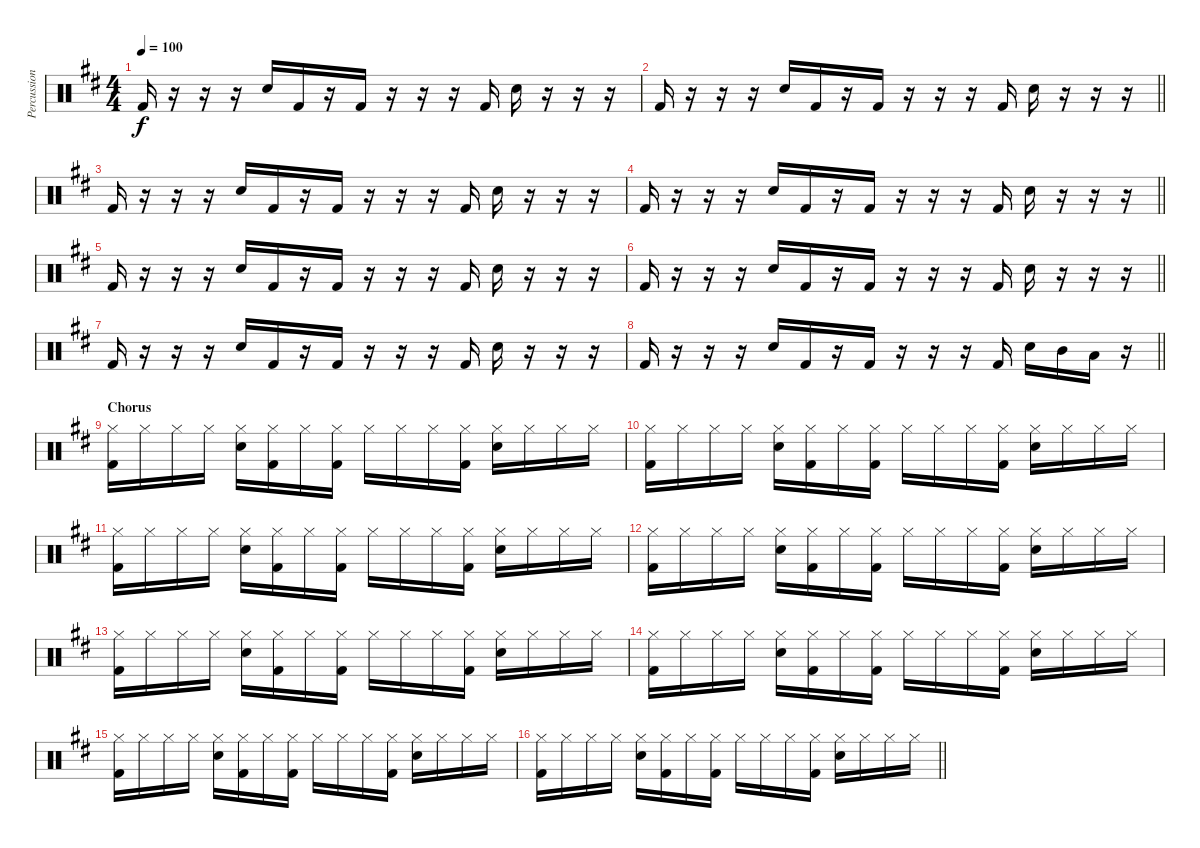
\track ("Percussion" "Percussion") {instrument percussion}
\staff {score}
\articulation defaults
\ts (4 4)
\tempo 100
\clef neutral
\ks d "Kick (hit) 2".16{dy f}
r.16 r.16 r.16 "Snare (hit) 2".16 "Kick (hit) 2".16 r.16 "Kick (hit) 2".16 r.16 r.16 r.16 "Kick (hit) 2".16 "Snare (hit) 2".16 r.16 r.16 r.16 |
\barLineRight lightlight "Kick (hit) 2".16
r.16 r.16 r.16 "Snare (hit) 2".16 "Kick (hit) 2".16 r.16 "Kick (hit) 2".16 r.16 r.16 r.16 "Kick (hit) 2".16 "Snare (hit) 2".16 r.16 r.16 r.16 |
"Kick (hit) 2".16 r.16 r.16 r.16 "Snare (hit) 2".16 "Kick (hit) 2".16 r.16 "Kick (hit) 2".16 r.16 r.16 r.16 "Kick (hit) 2".16 "Snare (hit) 2".16 r.16 r.16 r.16 |
\barLineRight lightlight "Kick (hit) 2".16
r.16 r.16 r.16 "Snare (hit) 2".16 "Kick (hit) 2".16 r.16 "Kick (hit) 2".16 r.16 r.16 r.16 "Kick (hit) 2".16 "Snare (hit) 2".16 r.16 r.16 r.16 |
"Kick (hit) 2".16 r.16 r.16 r.16 "Snare (hit) 2".16 "Kick (hit) 2".16 r.16 "Kick (hit) 2".16 r.16 r.16 r.16 "Kick (hit) 2".16 "Snare (hit) 2".16 r.16 r.16 r.16 |
\barLineRight lightlight "Kick (hit) 2".16
r.16 r.16 r.16 "Snare (hit) 2".16 "Kick (hit) 2".16 r.16 "Kick (hit) 2".16 r.16 r.16 r.16 "Kick (hit) 2".16 "Snare (hit) 2".16 r.16 r.16 r.16 |
"Kick (hit) 2".16 r.16 r.16 r.16 "Snare (hit) 2".16 "Kick (hit) 2".16 r.16 "Kick (hit) 2".16 r.16 r.16 r.16 "Kick (hit) 2".16 "Snare (hit) 2".16 r.16 r.16 r.16 |
\barLineRight lightlight "Kick (hit) 2".16
r.16 r.16 r.16 "Snare (hit) 2".16 "Kick (hit) 2".16 r.16 "Kick (hit) 2".16 r.16 r.16 r.16 "Kick (hit) 2".16 "Snare (hit) 2".16 "Mid Tom (hit)".16 "Low Tom (hit)".16 r.16 |
\section ("" "Chorus")
("Hi-Hat (closed)" "Kick (hit) 2").16 "Hi-Hat (closed)".16 "Hi-Hat (closed)".16 "Hi-Hat (closed)".16 ("Hi-Hat (closed)" "Snare (hit) 2").16 ("Hi-Hat (closed)" "Kick (hit) 2").16 "Hi-Hat (closed)".16 ("Hi-Hat (closed)" "Kick (hit) 2").16 "Hi-Hat (closed)".16 "Hi-Hat (closed)".16 "Hi-Hat (closed)".16 ("Hi-Hat (closed)" "Kick (hit) 2").16 ("Hi-Hat (closed)" "Snare (hit) 2").16 "Hi-Hat (closed)".16 "Hi-Hat (closed)".16 "Hi-Hat (closed)".16 |
("Hi-Hat (closed)" "Kick (hit) 2").16 "Hi-Hat (closed)".16 "Hi-Hat (closed)".16 "Hi-Hat (closed)".16 ("Hi-Hat (closed)" "Snare (hit) 2").16 ("Hi-Hat (closed)" "Kick (hit) 2").16 "Hi-Hat (closed)".16 ("Hi-Hat (closed)" "Kick (hit) 2").16 "Hi-Hat (closed)".16 "Hi-Hat (closed)".16 "Hi-Hat (closed)".16 ("Hi-Hat (closed)" "Kick (hit) 2").16 ("Hi-Hat (closed)" "Snare (hit) 2").16 "Hi-Hat (closed)".16 "Hi-Hat (closed)".16 "Hi-Hat (closed)".16 |
("Hi-Hat (closed)" "Kick (hit) 2").16 "Hi-Hat (closed)".16 "Hi-Hat (closed)".16 "Hi-Hat (closed)".16 ("Hi-Hat (closed)" "Snare (hit) 2").16 ("Hi-Hat (closed)" "Kick (hit) 2").16 "Hi-Hat (closed)".16 ("Hi-Hat (closed)" "Kick (hit) 2").16 "Hi-Hat (closed)".16 "Hi-Hat (closed)".16 "Hi-Hat (closed)".16 ("Hi-Hat (closed)" "Kick (hit) 2").16 ("Hi-Hat (closed)" "Snare (hit) 2").16 "Hi-Hat (closed)".16 "Hi-Hat (closed)".16 "Hi-Hat (closed)".16 |
("Hi-Hat (closed)" "Kick (hit) 2").16 "Hi-Hat (closed)".16 "Hi-Hat (closed)".16 "Hi-Hat (closed)".16 ("Hi-Hat (closed)" "Snare (hit) 2").16 ("Hi-Hat (closed)" "Kick (hit) 2").16 "Hi-Hat (closed)".16 ("Hi-Hat (closed)" "Kick (hit) 2").16 "Hi-Hat (closed)".16 "Hi-Hat (closed)".16 "Hi-Hat (closed)".16 ("Hi-Hat (closed)" "Kick (hit) 2").16 ("Hi-Hat (closed)" "Snare (hit) 2").16 "Hi-Hat (closed)".16 "Hi-Hat (closed)".16 "Hi-Hat (closed)".16 |
("Hi-Hat (closed)" "Kick (hit) 2").16 "Hi-Hat (closed)".16 "Hi-Hat (closed)".16 "Hi-Hat (closed)".16 ("Hi-Hat (closed)" "Snare (hit) 2").16 ("Hi-Hat (closed)" "Kick (hit) 2").16 "Hi-Hat (closed)".16 ("Hi-Hat (closed)" "Kick (hit) 2").16 "Hi-Hat (closed)".16 "Hi-Hat (closed)".16 "Hi-Hat (closed)".16 ("Hi-Hat (closed)" "Kick (hit) 2").16 ("Hi-Hat (closed)" "Snare (hit) 2").16 "Hi-Hat (closed)".16 "Hi-Hat (closed)".16 "Hi-Hat (closed)".16 |
("Hi-Hat (closed)" "Kick (hit) 2").16 "Hi-Hat (closed)".16 "Hi-Hat (closed)".16 "Hi-Hat (closed)".16 ("Hi-Hat (closed)" "Snare (hit) 2").16 ("Hi-Hat (closed)" "Kick (hit) 2").16 "Hi-Hat (closed)".16 ("Hi-Hat (closed)" "Kick (hit) 2").16 "Hi-Hat (closed)".16 "Hi-Hat (closed)".16 "Hi-Hat (closed)".16 ("Hi-Hat (closed)" "Kick (hit) 2").16 ("Hi-Hat (closed)" "Snare (hit) 2").16 "Hi-Hat (closed)".16 "Hi-Hat (closed)".16 "Hi-Hat (closed)".16 |
("Hi-Hat (closed)" "Kick (hit) 2").16 "Hi-Hat (closed)".16 "Hi-Hat (closed)".16 "Hi-Hat (closed)".16 ("Hi-Hat (closed)" "Snare (hit) 2").16 ("Hi-Hat (closed)" "Kick (hit) 2").16 "Hi-Hat (closed)".16 ("Hi-Hat (closed)" "Kick (hit) 2").16 "Hi-Hat (closed)".16 "Hi-Hat (closed)".16 "Hi-Hat (closed)".16 ("Hi-Hat (closed)" "Kick (hit) 2").16 ("Hi-Hat (closed)" "Snare (hit) 2").16 "Hi-Hat (closed)".16 "Hi-Hat (closed)".16 "Hi-Hat (closed)".16 |
\barLineRight lightlight
("Hi-Hat (closed)" "Kick (hit) 2").16 "Hi-Hat (closed)".16 "Hi-Hat (closed)".16 "Hi-Hat (closed)".16 ("Hi-Hat (closed)" "Snare (hit) 2").16 ("Hi-Hat (closed)" "Kick (hit) 2").16 "Hi-Hat (closed)".16 ("Hi-Hat (closed)" "Kick (hit) 2").16 "Hi-Hat (closed)".16 "Hi-Hat (closed)".16 "Hi-Hat (closed)".16 ("Hi-Hat (closed)" "Kick (hit) 2").16 ("Hi-Hat (closed)" "Snare (hit) 2").16 "Hi-Hat (closed)".16 "Hi-Hat (closed)".16 "Hi-Hat (closed)".16
